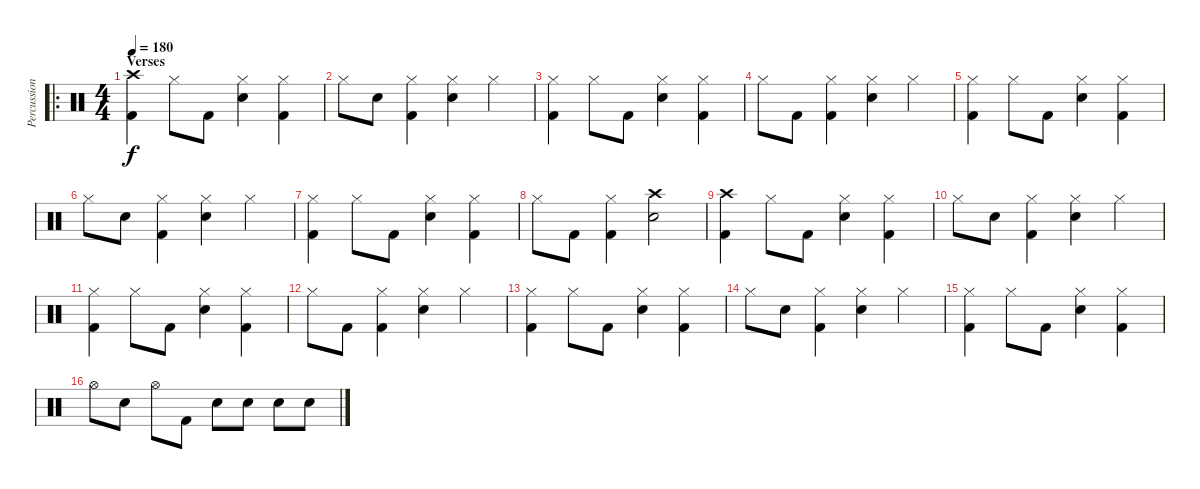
\track ("Percussion" "Percussion") {instrument percussion}
\staff {score}
\articulation defaults
\ro
\ts (4 4)
\section ("" "Verses")
\tempo 180
\clef neutral
\ks c
("Crash high (hit)" "Kick (hit) 2").4{dy f} "Hi-Hat (closed)".8 "Kick (hit) 2".8 ("Hi-Hat (closed)" "Electric Snare (hit)").4 ("Hi-Hat (closed)" "Kick (hit) 2").4 |
"Hi-Hat (closed)".8 "Electric Snare (hit)".8 ("Hi-Hat (closed)" "Kick (hit) 2").4 ("Hi-Hat (closed)" "Electric Snare (hit)").4 "Hi-Hat (closed)".4 |
("Hi-Hat (closed)" "Kick (hit) 2").4 "Hi-Hat (closed)".8 "Kick (hit) 2".8 ("Hi-Hat (closed)" "Electric Snare (hit)").4 ("Hi-Hat (closed)" "Kick (hit) 2").4 |
"Hi-Hat (closed)".8 "Kick (hit) 2".8 ("Hi-Hat (closed)" "Kick (hit) 2").4 ("Hi-Hat (closed)" "Electric Snare (hit)").4 "Hi-Hat (closed)".4 |
("Hi-Hat (closed)" "Kick (hit) 2").4 "Hi-Hat (closed)".8 "Kick (hit) 2".8 ("Hi-Hat (closed)" "Electric Snare (hit)").4 ("Hi-Hat (closed)" "Kick (hit) 2").4 |
"Hi-Hat (closed)".8 "Electric Snare (hit)".8 ("Hi-Hat (closed)" "Kick (hit) 2").4 ("Hi-Hat (closed)" "Electric Snare (hit)").4 "Hi-Hat (closed)".4 |
("Hi-Hat (closed)" "Kick (hit) 2").4 "Hi-Hat (closed)".8 "Kick (hit) 2".8 ("Hi-Hat (closed)" "Electric Snare (hit)").4 ("Hi-Hat (closed)" "Kick (hit) 2").4 |
"Hi-Hat (closed)".8 "Kick (hit) 2".8 ("Hi-Hat (closed)" "Kick (hit) 2").4 ("Crash high (hit)" "Electric Snare (hit)").2 |
("Crash high (hit)" "Kick (hit) 2").4 "Hi-Hat (closed)".8 "Kick (hit) 2".8 ("Hi-Hat (closed)" "Electric Snare (hit)").4 ("Hi-Hat (closed)" "Kick (hit) 2").4 |
"Hi-Hat (closed)".8 "Electric Snare (hit)".8 ("Hi-Hat (closed)" "Kick (hit) 2").4 ("Hi-Hat (closed)" "Electric Snare (hit)").4 "Hi-Hat (closed)".4 |
("Hi-Hat (closed)" "Kick (hit) 2").4 "Hi-Hat (closed)".8 "Kick (hit) 2".8 ("Hi-Hat (closed)" "Electric Snare (hit)").4 ("Hi-Hat (closed)" "Kick (hit) 2").4 |
"Hi-Hat (closed)".8 "Kick (hit) 2".8 ("Hi-Hat (closed)" "Kick (hit) 2").4 ("Hi-Hat (closed)" "Electric Snare (hit)").4 "Hi-Hat (closed)".4 |
("Hi-Hat (closed)" "Kick (hit) 2").4 "Hi-Hat (closed)".8 "Kick (hit) 2".8 ("Hi-Hat (closed)" "Electric Snare (hit)").4 ("Hi-Hat (closed)" "Kick (hit) 2").4 |
"Hi-Hat (closed)".8 "Electric Snare (hit)".8 ("Hi-Hat (closed)" "Kick (hit) 2").4 ("Hi-Hat (closed)" "Electric Snare (hit)").4 "Hi-Hat (closed)".4 |
("Hi-Hat (closed)" "Kick (hit) 2").4 "Hi-Hat (closed)".8 "Kick (hit) 2".8 ("Hi-Hat (closed)" "Electric Snare (hit)").4 ("Hi-Hat (closed)" "Kick (hit) 2").4 |
"Hi-Hat (open)".8 "Electric Snare (hit)".8 "Hi-Hat (open)".8 "Kick (hit) 2".8 "Electric Snare (hit)".8 "Electric Snare (hit)".8 "Electric Snare (hit)".8 "Electric Snare (hit)".8
